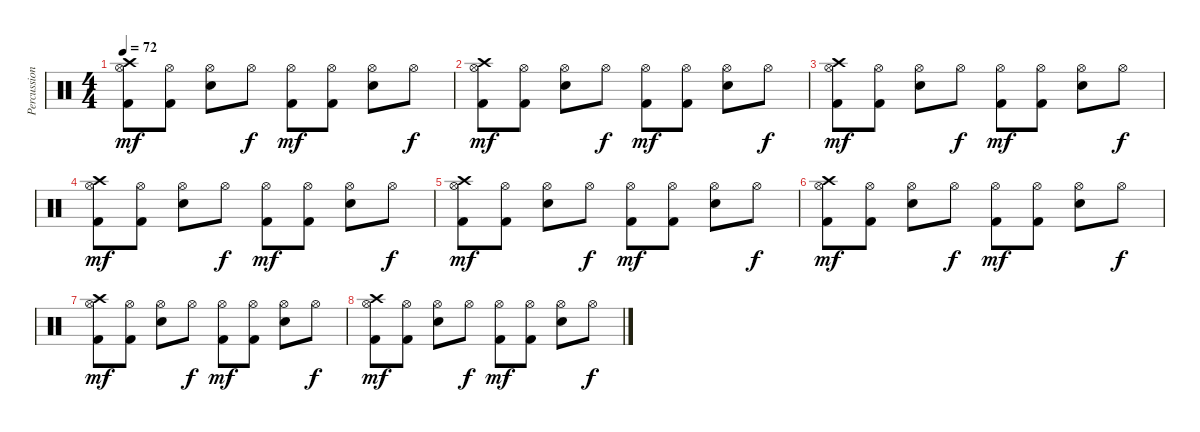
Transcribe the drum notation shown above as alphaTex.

\track ("Percussion" "Percussion") {instrument percussion}
\staff {score}
\articulation defaults
\ts (4 4)
\tempo 72
\clef neutral
\ks c
("Kick (hit) 2" "Hi-Hat (open)" "Crash high (hit)").8{dy mf} ("Kick (hit) 2" "Hi-Hat (open)").8 ("Snare (hit) 2" "Hi-Hat (open)").8 "Hi-Hat (open)".8{dy f} ("Kick (hit) 2" "Hi-Hat (open)").8{dy mf} ("Kick (hit) 2" "Hi-Hat (open)").8 ("Snare (hit) 2" "Hi-Hat (open)").8 "Hi-Hat (open)".8{dy f} |
("Kick (hit) 2" "Hi-Hat (open)" "Crash high (hit)").8{dy mf} ("Kick (hit) 2" "Hi-Hat (open)").8 ("Snare (hit) 2" "Hi-Hat (open)").8 "Hi-Hat (open)".8{dy f} ("Kick (hit) 2" "Hi-Hat (open)").8{dy mf} ("Kick (hit) 2" "Hi-Hat (open)").8 ("Snare (hit) 2" "Hi-Hat (open)").8 "Hi-Hat (open)".8{dy f} |
("Kick (hit) 2" "Hi-Hat (open)" "Crash high (hit)").8{dy mf} ("Kick (hit) 2" "Hi-Hat (open)").8 ("Snare (hit) 2" "Hi-Hat (open)").8 "Hi-Hat (open)".8{dy f} ("Kick (hit) 2" "Hi-Hat (open)").8{dy mf} ("Kick (hit) 2" "Hi-Hat (open)").8 ("Snare (hit) 2" "Hi-Hat (open)").8 "Hi-Hat (open)".8{dy f} |
("Kick (hit) 2" "Hi-Hat (open)" "Crash high (hit)").8{dy mf} ("Kick (hit) 2" "Hi-Hat (open)").8 ("Snare (hit) 2" "Hi-Hat (open)").8 "Hi-Hat (open)".8{dy f} ("Kick (hit) 2" "Hi-Hat (open)").8{dy mf} ("Kick (hit) 2" "Hi-Hat (open)").8 ("Snare (hit) 2" "Hi-Hat (open)").8 "Hi-Hat (open)".8{dy f} |
("Kick (hit) 2" "Hi-Hat (open)" "Crash high (hit)").8{dy mf} ("Kick (hit) 2" "Hi-Hat (open)").8 ("Snare (hit) 2" "Hi-Hat (open)").8 "Hi-Hat (open)".8{dy f} ("Kick (hit) 2" "Hi-Hat (open)").8{dy mf} ("Kick (hit) 2" "Hi-Hat (open)").8 ("Snare (hit) 2" "Hi-Hat (open)").8 "Hi-Hat (open)".8{dy f} |
("Kick (hit) 2" "Hi-Hat (open)" "Crash high (hit)").8{dy mf} ("Kick (hit) 2" "Hi-Hat (open)").8 ("Snare (hit) 2" "Hi-Hat (open)").8 "Hi-Hat (open)".8{dy f} ("Kick (hit) 2" "Hi-Hat (open)").8{dy mf} ("Kick (hit) 2" "Hi-Hat (open)").8 ("Snare (hit) 2" "Hi-Hat (open)").8 "Hi-Hat (open)".8{dy f} |
("Kick (hit) 2" "Hi-Hat (open)" "Crash high (hit)").8{dy mf} ("Kick (hit) 2" "Hi-Hat (open)").8 ("Snare (hit) 2" "Hi-Hat (open)").8 "Hi-Hat (open)".8{dy f} ("Kick (hit) 2" "Hi-Hat (open)").8{dy mf} ("Kick (hit) 2" "Hi-Hat (open)").8 ("Snare (hit) 2" "Hi-Hat (open)").8 "Hi-Hat (open)".8{dy f} |
("Kick (hit) 2" "Hi-Hat (open)" "Crash high (hit)").8{dy mf} ("Kick (hit) 2" "Hi-Hat (open)").8 ("Snare (hit) 2" "Hi-Hat (open)").8 "Hi-Hat (open)".8{dy f} ("Kick (hit) 2" "Hi-Hat (open)").8{dy mf} ("Kick (hit) 2" "Hi-Hat (open)").8 ("Snare (hit) 2" "Hi-Hat (open)").8 "Hi-Hat (open)".8{dy f}
